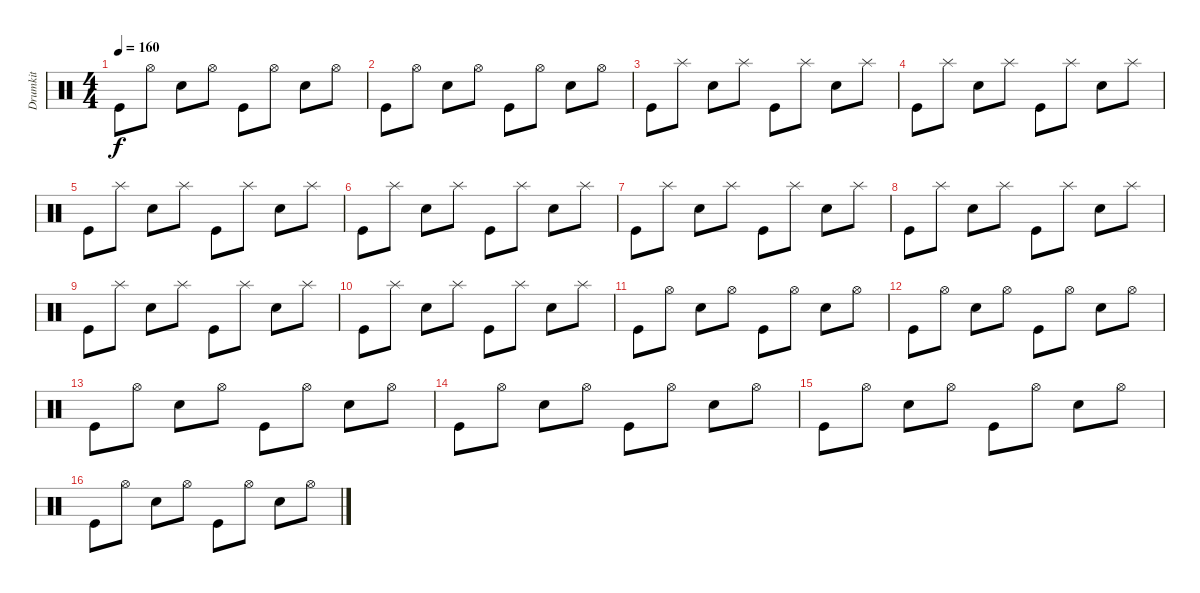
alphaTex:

\track ("Drumkit" "Drumkit") {instrument percussion}
\staff {score}
\articulation defaults
\ts (4 4)
\tempo 160
\clef neutral
\ks c "Kick (hit)".8{dy f} "Hi-Hat (open)".8 "Snare (hit) 2".8 "Hi-Hat (open)".8 "Kick (hit)".8 "Hi-Hat (open)".8 "Snare (hit) 2".8 "Hi-Hat (open)".8
|
"Kick (hit)".8 "Hi-Hat (open)".8 "Snare (hit) 2".8 "Hi-Hat (open)".8 "Kick (hit)".8 "Hi-Hat (open)".8 "Snare (hit) 2".8 "Hi-Hat (open)".8 |
"Kick (hit)".8 "Splash (hit)".8 "Snare (hit) 2".8 "Splash (hit)".8 "Kick (hit)".8 "Splash (hit)".8 "Snare (hit) 2".8 "Splash (hit)".8 |
"Kick (hit)".8 "Splash (hit)".8 "Snare (hit) 2".8 "Splash (hit)".8 "Kick (hit)".8 "Splash (hit)".8 "Snare (hit) 2".8 "Splash (hit)".8 |
"Kick (hit)".8 "Splash (hit)".8 "Snare (hit) 2".8 "Splash (hit)".8 "Kick (hit)".8 "Splash (hit)".8 "Snare (hit) 2".8 "Splash (hit)".8 |
"Kick (hit)".8 "Splash (hit)".8 "Snare (hit) 2".8 "Splash (hit)".8 "Kick (hit)".8 "Splash (hit)".8 "Snare (hit) 2".8 "Splash (hit)".8 |
"Kick (hit)".8 "Splash (hit)".8 "Snare (hit) 2".8 "Splash (hit)".8 "Kick (hit)".8 "Splash (hit)".8 "Snare (hit) 2".8 "Splash (hit)".8 |
"Kick (hit)".8 "Splash (hit)".8 "Snare (hit) 2".8 "Splash (hit)".8 "Kick (hit)".8 "Splash (hit)".8 "Snare (hit) 2".8 "Splash (hit)".8 |
"Kick (hit)".8 "Splash (hit)".8 "Snare (hit) 2".8 "Splash (hit)".8 "Kick (hit)".8 "Splash (hit)".8 "Snare (hit) 2".8 "Splash (hit)".8 |
"Kick (hit)".8 "Splash (hit)".8 "Snare (hit) 2".8 "Splash (hit)".8 "Kick (hit)".8 "Splash (hit)".8 "Snare (hit) 2".8 "Splash (hit)".8 |
"Kick (hit)".8 "Hi-Hat (open)".8 "Snare (hit) 2".8 "Hi-Hat (open)".8 "Kick (hit)".8 "Hi-Hat (open)".8 "Snare (hit) 2".8 "Hi-Hat (open)".8 |
"Kick (hit)".8 "Hi-Hat (open)".8 "Snare (hit) 2".8 "Hi-Hat (open)".8 "Kick (hit)".8 "Hi-Hat (open)".8 "Snare (hit) 2".8 "Hi-Hat (open)".8 |
"Kick (hit)".8 "Hi-Hat (open)".8 "Snare (hit) 2".8 "Hi-Hat (open)".8 "Kick (hit)".8 "Hi-Hat (open)".8 "Snare (hit) 2".8 "Hi-Hat (open)".8 |
"Kick (hit)".8 "Hi-Hat (open)".8 "Snare (hit) 2".8 "Hi-Hat (open)".8 "Kick (hit)".8 "Hi-Hat (open)".8 "Snare (hit) 2".8 "Hi-Hat (open)".8 |
"Kick (hit)".8 "Hi-Hat (open)".8 "Snare (hit) 2".8 "Hi-Hat (open)".8 "Kick (hit)".8 "Hi-Hat (open)".8 "Snare (hit) 2".8 "Hi-Hat (open)".8 |
"Kick (hit)".8 "Hi-Hat (open)".8 "Snare (hit) 2".8 "Hi-Hat (open)".8 "Kick (hit)".8 "Hi-Hat (open)".8 "Snare (hit) 2".8 "Hi-Hat (open)".8
